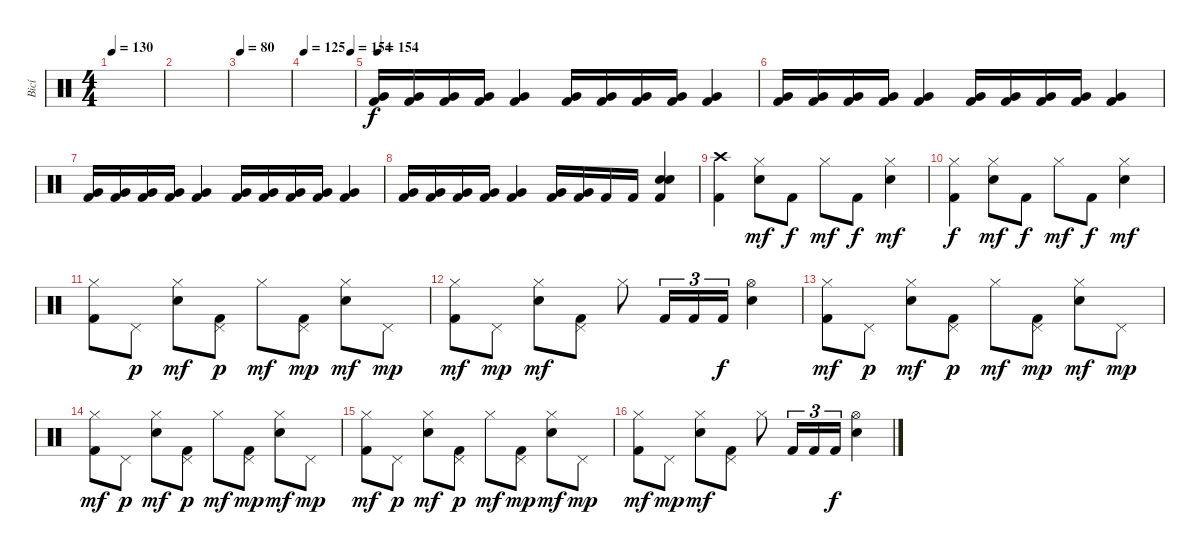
\track ("Bicí" "Bicí") {instrument percussion}
\staff {score}
\articulation defaults
\ts (4 4)
\tempo 130
\clef neutral
\ks c
|
|
\tempo 80
|
\tempo 125
\tempo (154 0.9375)
|
\tempo 154
("Kick (hit) 2" "Very Low Tom (hit)").16 ("Kick (hit) 2" "Very Low Tom (hit)").16 ("Kick (hit) 2" "Very Low Tom (hit)").16 ("Kick (hit) 2" "Very Low Tom (hit)").16 ("Kick (hit) 2" "Very Low Tom (hit)").4 ("Kick (hit) 2" "Very Low Tom (hit)").16 ("Kick (hit) 2" "Very Low Tom (hit)").16 ("Kick (hit) 2" "Very Low Tom (hit)").16 ("Kick (hit) 2" "Very Low Tom (hit)").16 ("Kick (hit) 2" "Very Low Tom (hit)").4 |
("Kick (hit) 2" "Very Low Tom (hit)").16 ("Kick (hit) 2" "Very Low Tom (hit)").16 ("Kick (hit) 2" "Very Low Tom (hit)").16 ("Kick (hit) 2" "Very Low Tom (hit)").16 ("Kick (hit) 2" "Very Low Tom (hit)").4 ("Kick (hit) 2" "Very Low Tom (hit)").16 ("Kick (hit) 2" "Very Low Tom (hit)").16 ("Kick (hit) 2" "Very Low Tom (hit)").16 ("Kick (hit) 2" "Very Low Tom (hit)").16 ("Kick (hit) 2" "Very Low Tom (hit)").4 |
("Kick (hit) 2" "Very Low Tom (hit)").16 ("Kick (hit) 2" "Very Low Tom (hit)").16 ("Kick (hit) 2" "Very Low Tom (hit)").16 ("Kick (hit) 2" "Very Low Tom (hit)").16 ("Kick (hit) 2" "Very Low Tom (hit)").4 ("Kick (hit) 2" "Very Low Tom (hit)").16 ("Kick (hit) 2" "Very Low Tom (hit)").16 ("Kick (hit) 2" "Very Low Tom (hit)").16 ("Kick (hit) 2" "Very Low Tom (hit)").16 ("Kick (hit) 2" "Very Low Tom (hit)").4 |
("Kick (hit) 2" "Very Low Tom (hit)").16 ("Kick (hit) 2" "Very Low Tom (hit)").16 ("Kick (hit) 2" "Very Low Tom (hit)").16 ("Kick (hit) 2" "Very Low Tom (hit)").16 ("Kick (hit) 2" "Very Low Tom (hit)").4 ("Kick (hit) 2" "Very Low Tom (hit)").16 ("Kick (hit) 2" "Very Low Tom (hit)").16 "Kick (hit) 2".16 "Kick (hit) 2".16 ("Kick (hit) 2" "Electric Snare (hit)" "Snare (hit) 2").4 |
("Crash high (hit)" "Kick (hit) 2").4 ("Hi-Hat (closed)" "Electric Snare (hit)").8{dy mf} "Kick (hit) 2".8{dy f} "Hi-Hat (closed)".8{dy mf} "Kick (hit) 2".8{dy f} ("Hi-Hat (closed)" "Electric Snare (hit)").4{dy mf} |
("Hi-Hat (closed)" "Kick (hit) 2").4{dy f} ("Hi-Hat (closed)" "Electric Snare (hit)").8{dy mf} "Kick (hit) 2".8{dy f} "Hi-Hat (closed)".8{dy mf} "Kick (hit) 2".8{dy f} ("Hi-Hat (closed)" "Electric Snare (hit)").4{dy mf} |
("Hi-Hat (closed)" "Kick (hit) 2").8 "Pedal Hi-Hat (hit)".8{dy p} ("Hi-Hat (closed)" "Electric Snare (hit)").8{dy mf} ("Pedal Hi-Hat (hit)" "Kick (hit) 2").8{dy p} "Hi-Hat (closed)".8{dy mf} ("Pedal Hi-Hat (hit)" "Kick (hit) 2").8{dy mp} ("Hi-Hat (closed)" "Electric Snare (hit)").8{dy mf} "Pedal Hi-Hat (hit)".8{dy mp} |
("Hi-Hat (closed)" "Kick (hit) 2").8{dy mf} "Pedal Hi-Hat (hit)".8{dy mp} ("Hi-Hat (closed)" "Electric Snare (hit)").8{dy mf} ("Pedal Hi-Hat (hit)" "Kick (hit) 2").8 "Hi-Hat (closed)".8 "Kick (hit) 2".16{tu (3 2)} "Kick (hit) 2".16{tu (3 2)} "Kick (hit) 2".16{tu (3 2) dy f} ("Hi-Hat (open)" "Electric Snare (hit)").4 |
("Hi-Hat (closed)" "Kick (hit) 2").8{dy mf} "Pedal Hi-Hat (hit)".8{dy p} ("Hi-Hat (closed)" "Electric Snare (hit)").8{dy mf} ("Pedal Hi-Hat (hit)" "Kick (hit) 2").8{dy p} "Hi-Hat (closed)".8{dy mf} ("Pedal Hi-Hat (hit)" "Kick (hit) 2").8{dy mp} ("Hi-Hat (closed)" "Electric Snare (hit)").8{dy mf} "Pedal Hi-Hat (hit)".8{dy mp} |
("Hi-Hat (closed)" "Kick (hit) 2").8{dy mf} "Pedal Hi-Hat (hit)".8{dy p} ("Hi-Hat (closed)" "Electric Snare (hit)").8{dy mf} ("Pedal Hi-Hat (hit)" "Kick (hit) 2").8{dy p} "Hi-Hat (closed)".8{dy mf} ("Pedal Hi-Hat (hit)" "Kick (hit) 2").8{dy mp} ("Hi-Hat (closed)" "Electric Snare (hit)").8{dy mf} "Pedal Hi-Hat (hit)".8{dy mp} |
("Hi-Hat (closed)" "Kick (hit) 2").8{dy mf} "Pedal Hi-Hat (hit)".8{dy p} ("Hi-Hat (closed)" "Electric Snare (hit)").8{dy mf} ("Pedal Hi-Hat (hit)" "Kick (hit) 2").8{dy p} "Hi-Hat (closed)".8{dy mf} ("Pedal Hi-Hat (hit)" "Kick (hit) 2").8{dy mp} ("Hi-Hat (closed)" "Electric Snare (hit)").8{dy mf} "Pedal Hi-Hat (hit)".8{dy mp} |
("Hi-Hat (closed)" "Kick (hit) 2").8{dy mf} "Pedal Hi-Hat (hit)".8{dy mp} ("Hi-Hat (closed)" "Electric Snare (hit)").8{dy mf} ("Pedal Hi-Hat (hit)" "Kick (hit) 2").8 "Hi-Hat (closed)".8 "Kick (hit) 2".16{tu (3 2)} "Kick (hit) 2".16{tu (3 2)} "Kick (hit) 2".16{tu (3 2) dy f} ("Hi-Hat (open)" "Electric Snare (hit)").4
